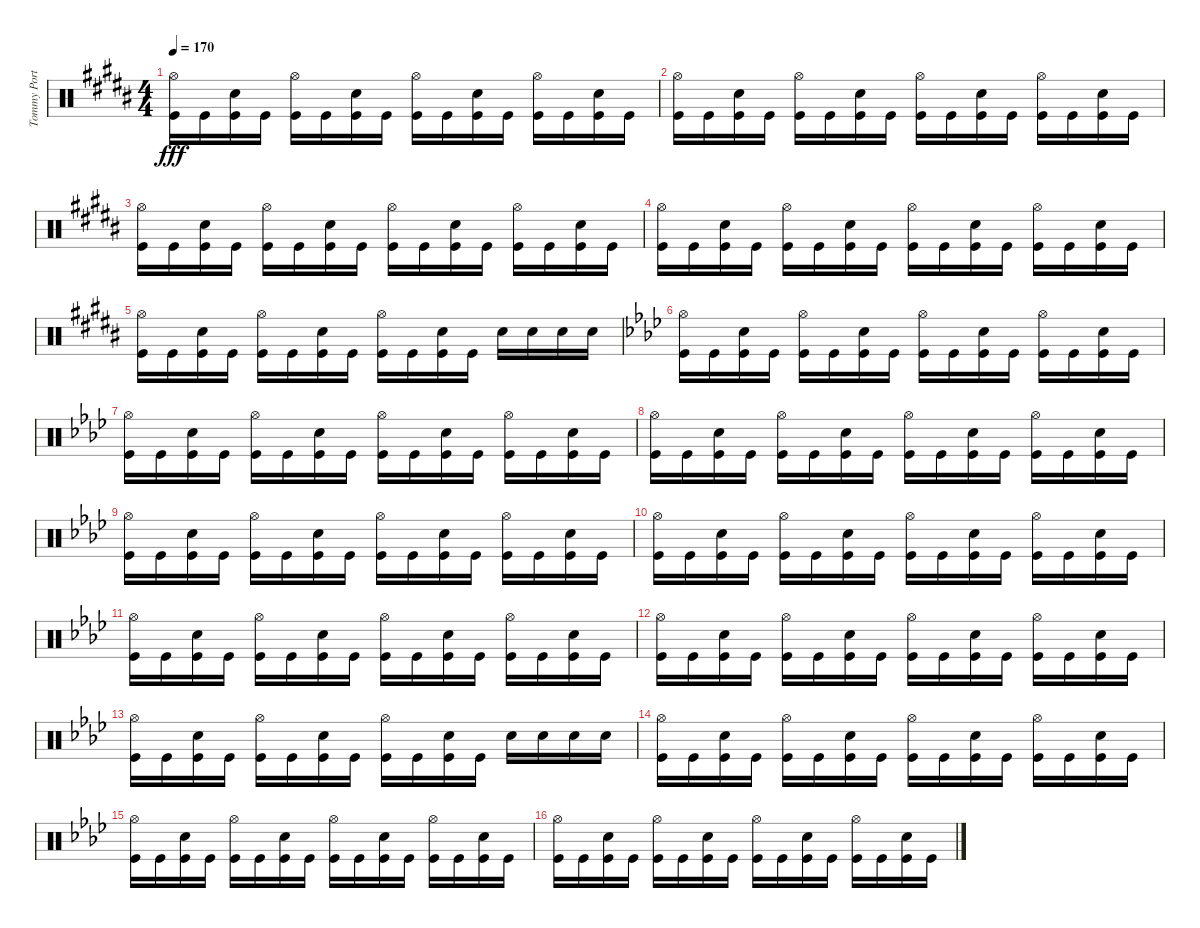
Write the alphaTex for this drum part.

\track ("Tommy Portimo (Percussion)" "Tommy Port") {instrument percussion}
\staff {score}
\articulation defaults
\ts (4 4)
\tempo 170
\clef neutral
\ks b
("Kick (hit)" "Hi-Hat (open)").16{dy fff} "Kick (hit)".16 ("Kick (hit)" "Electric Snare (hit)").16 "Kick (hit)".16 ("Kick (hit)" "Hi-Hat (open)").16 "Kick (hit)".16 ("Kick (hit)" "Electric Snare (hit)").16 "Kick (hit)".16 ("Kick (hit)" "Hi-Hat (open)").16 "Kick (hit)".16 ("Kick (hit)" "Electric Snare (hit)").16 "Kick (hit)".16 ("Kick (hit)" "Hi-Hat (open)").16 "Kick (hit)".16 ("Kick (hit)" "Electric Snare (hit)").16 "Kick (hit)".16 |
("Kick (hit)" "Hi-Hat (open)").16 "Kick (hit)".16 ("Kick (hit)" "Electric Snare (hit)").16 "Kick (hit)".16 ("Kick (hit)" "Hi-Hat (open)").16 "Kick (hit)".16 ("Kick (hit)" "Electric Snare (hit)").16 "Kick (hit)".16 ("Kick (hit)" "Hi-Hat (open)").16 "Kick (hit)".16 ("Kick (hit)" "Electric Snare (hit)").16 "Kick (hit)".16 ("Kick (hit)" "Hi-Hat (open)").16 "Kick (hit)".16 ("Kick (hit)" "Electric Snare (hit)").16 "Kick (hit)".16 |
("Kick (hit)" "Hi-Hat (open)").16 "Kick (hit)".16 ("Kick (hit)" "Electric Snare (hit)").16 "Kick (hit)".16 ("Kick (hit)" "Hi-Hat (open)").16 "Kick (hit)".16 ("Kick (hit)" "Electric Snare (hit)").16 "Kick (hit)".16 ("Kick (hit)" "Hi-Hat (open)").16 "Kick (hit)".16 ("Kick (hit)" "Electric Snare (hit)").16 "Kick (hit)".16 ("Kick (hit)" "Hi-Hat (open)").16 "Kick (hit)".16 ("Kick (hit)" "Electric Snare (hit)").16 "Kick (hit)".16 |
("Kick (hit)" "Hi-Hat (open)").16 "Kick (hit)".16 ("Kick (hit)" "Electric Snare (hit)").16 "Kick (hit)".16 ("Kick (hit)" "Hi-Hat (open)").16 "Kick (hit)".16 ("Kick (hit)" "Electric Snare (hit)").16 "Kick (hit)".16 ("Kick (hit)" "Hi-Hat (open)").16 "Kick (hit)".16 ("Kick (hit)" "Electric Snare (hit)").16 "Kick (hit)".16 ("Kick (hit)" "Hi-Hat (open)").16 "Kick (hit)".16 ("Kick (hit)" "Electric Snare (hit)").16 "Kick (hit)".16 |
("Kick (hit)" "Hi-Hat (open)").16 "Kick (hit)".16 ("Kick (hit)" "Electric Snare (hit)").16 "Kick (hit)".16 ("Kick (hit)" "Hi-Hat (open)").16 "Kick (hit)".16 ("Kick (hit)" "Electric Snare (hit)").16 "Kick (hit)".16 ("Kick (hit)" "Hi-Hat (open)").16 "Kick (hit)".16 ("Kick (hit)" "Electric Snare (hit)").16 "Kick (hit)".16 "Electric Snare (hit)".16 "Electric Snare (hit)".16 "Electric Snare (hit)".16 "Electric Snare (hit)".16 |
\ks ab
("Kick (hit)" "Hi-Hat (open)").16 "Kick (hit)".16 ("Kick (hit)" "Electric Snare (hit)").16 "Kick (hit)".16 ("Kick (hit)" "Hi-Hat (open)").16 "Kick (hit)".16 ("Kick (hit)" "Electric Snare (hit)").16 "Kick (hit)".16 ("Kick (hit)" "Hi-Hat (open)").16 "Kick (hit)".16 ("Kick (hit)" "Electric Snare (hit)").16 "Kick (hit)".16 ("Kick (hit)" "Hi-Hat (open)").16 "Kick (hit)".16 ("Kick (hit)" "Electric Snare (hit)").16 "Kick (hit)".16 |
("Kick (hit)" "Hi-Hat (open)").16 "Kick (hit)".16 ("Kick (hit)" "Electric Snare (hit)").16 "Kick (hit)".16 ("Kick (hit)" "Hi-Hat (open)").16 "Kick (hit)".16 ("Kick (hit)" "Electric Snare (hit)").16 "Kick (hit)".16 ("Kick (hit)" "Hi-Hat (open)").16 "Kick (hit)".16 ("Kick (hit)" "Electric Snare (hit)").16 "Kick (hit)".16 ("Kick (hit)" "Hi-Hat (open)").16 "Kick (hit)".16 ("Kick (hit)" "Electric Snare (hit)").16 "Kick (hit)".16 |
("Kick (hit)" "Hi-Hat (open)").16 "Kick (hit)".16 ("Kick (hit)" "Electric Snare (hit)").16 "Kick (hit)".16 ("Kick (hit)" "Hi-Hat (open)").16 "Kick (hit)".16 ("Kick (hit)" "Electric Snare (hit)").16 "Kick (hit)".16 ("Kick (hit)" "Hi-Hat (open)").16 "Kick (hit)".16 ("Kick (hit)" "Electric Snare (hit)").16 "Kick (hit)".16 ("Kick (hit)" "Hi-Hat (open)").16 "Kick (hit)".16 ("Kick (hit)" "Electric Snare (hit)").16 "Kick (hit)".16 |
("Kick (hit)" "Hi-Hat (open)").16 "Kick (hit)".16 ("Kick (hit)" "Electric Snare (hit)").16 "Kick (hit)".16 ("Kick (hit)" "Hi-Hat (open)").16 "Kick (hit)".16 ("Kick (hit)" "Electric Snare (hit)").16 "Kick (hit)".16 ("Kick (hit)" "Hi-Hat (open)").16 "Kick (hit)".16 ("Kick (hit)" "Electric Snare (hit)").16 "Kick (hit)".16 ("Kick (hit)" "Hi-Hat (open)").16 "Kick (hit)".16 ("Kick (hit)" "Electric Snare (hit)").16 "Kick (hit)".16 |
("Kick (hit)" "Hi-Hat (open)").16 "Kick (hit)".16 ("Kick (hit)" "Electric Snare (hit)").16 "Kick (hit)".16 ("Kick (hit)" "Hi-Hat (open)").16 "Kick (hit)".16 ("Kick (hit)" "Electric Snare (hit)").16 "Kick (hit)".16 ("Kick (hit)" "Hi-Hat (open)").16 "Kick (hit)".16 ("Kick (hit)" "Electric Snare (hit)").16 "Kick (hit)".16 ("Kick (hit)" "Hi-Hat (open)").16 "Kick (hit)".16 ("Kick (hit)" "Electric Snare (hit)").16 "Kick (hit)".16 |
("Kick (hit)" "Hi-Hat (open)").16 "Kick (hit)".16 ("Kick (hit)" "Electric Snare (hit)").16 "Kick (hit)".16 ("Kick (hit)" "Hi-Hat (open)").16 "Kick (hit)".16 ("Kick (hit)" "Electric Snare (hit)").16 "Kick (hit)".16 ("Kick (hit)" "Hi-Hat (open)").16 "Kick (hit)".16 ("Kick (hit)" "Electric Snare (hit)").16 "Kick (hit)".16 ("Kick (hit)" "Hi-Hat (open)").16 "Kick (hit)".16 ("Kick (hit)" "Electric Snare (hit)").16 "Kick (hit)".16 |
("Kick (hit)" "Hi-Hat (open)").16 "Kick (hit)".16 ("Kick (hit)" "Electric Snare (hit)").16 "Kick (hit)".16 ("Kick (hit)" "Hi-Hat (open)").16 "Kick (hit)".16 ("Kick (hit)" "Electric Snare (hit)").16 "Kick (hit)".16 ("Kick (hit)" "Hi-Hat (open)").16 "Kick (hit)".16 ("Kick (hit)" "Electric Snare (hit)").16 "Kick (hit)".16 ("Kick (hit)" "Hi-Hat (open)").16 "Kick (hit)".16 ("Kick (hit)" "Electric Snare (hit)").16 "Kick (hit)".16 |
("Kick (hit)" "Hi-Hat (open)").16 "Kick (hit)".16 ("Kick (hit)" "Electric Snare (hit)").16 "Kick (hit)".16 ("Kick (hit)" "Hi-Hat (open)").16 "Kick (hit)".16 ("Kick (hit)" "Electric Snare (hit)").16 "Kick (hit)".16 ("Kick (hit)" "Hi-Hat (open)").16 "Kick (hit)".16 ("Kick (hit)" "Electric Snare (hit)").16 "Kick (hit)".16 "Electric Snare (hit)".16 "Electric Snare (hit)".16 "Electric Snare (hit)".16 "Electric Snare (hit)".16 |
("Kick (hit)" "Hi-Hat (open)").16 "Kick (hit)".16 ("Kick (hit)" "Electric Snare (hit)").16 "Kick (hit)".16 ("Kick (hit)" "Hi-Hat (open)").16 "Kick (hit)".16 ("Kick (hit)" "Electric Snare (hit)").16 "Kick (hit)".16 ("Kick (hit)" "Hi-Hat (open)").16 "Kick (hit)".16 ("Kick (hit)" "Electric Snare (hit)").16 "Kick (hit)".16 ("Kick (hit)" "Hi-Hat (open)").16 "Kick (hit)".16 ("Kick (hit)" "Electric Snare (hit)").16 "Kick (hit)".16 |
("Kick (hit)" "Hi-Hat (open)").16 "Kick (hit)".16 ("Kick (hit)" "Electric Snare (hit)").16 "Kick (hit)".16 ("Kick (hit)" "Hi-Hat (open)").16 "Kick (hit)".16 ("Kick (hit)" "Electric Snare (hit)").16 "Kick (hit)".16 ("Kick (hit)" "Hi-Hat (open)").16 "Kick (hit)".16 ("Kick (hit)" "Electric Snare (hit)").16 "Kick (hit)".16 ("Kick (hit)" "Hi-Hat (open)").16 "Kick (hit)".16 ("Kick (hit)" "Electric Snare (hit)").16 "Kick (hit)".16 |
("Kick (hit)" "Hi-Hat (open)").16 "Kick (hit)".16 ("Kick (hit)" "Electric Snare (hit)").16 "Kick (hit)".16 ("Kick (hit)" "Hi-Hat (open)").16 "Kick (hit)".16 ("Kick (hit)" "Electric Snare (hit)").16 "Kick (hit)".16 ("Kick (hit)" "Hi-Hat (open)").16 "Kick (hit)".16 ("Kick (hit)" "Electric Snare (hit)").16 "Kick (hit)".16 ("Kick (hit)" "Hi-Hat (open)").16 "Kick (hit)".16 ("Kick (hit)" "Electric Snare (hit)").16 "Kick (hit)".16
